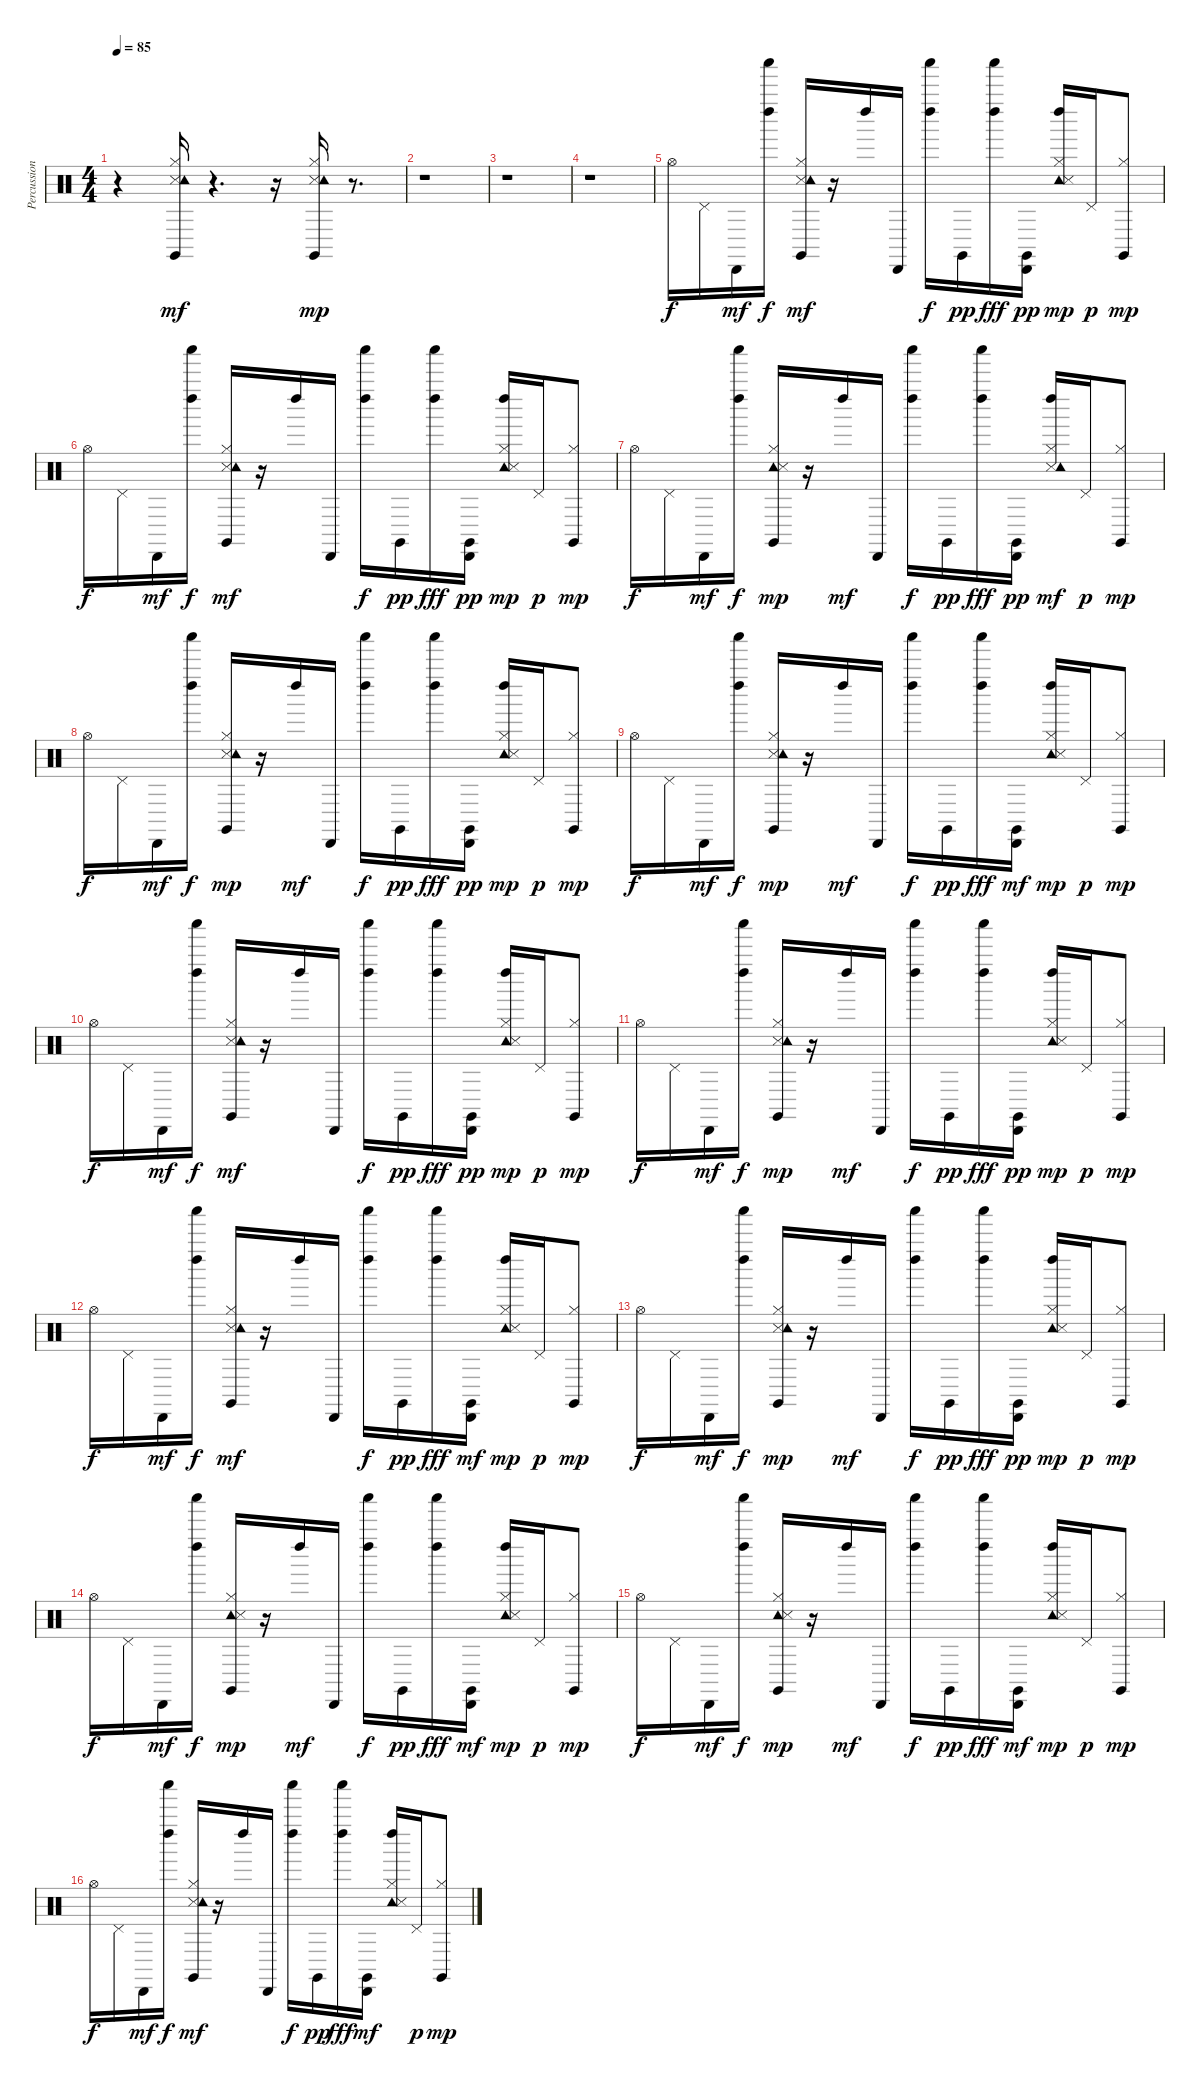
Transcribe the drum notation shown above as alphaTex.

\track ("Percussion" "Percussion") {instrument percussion}
\staff {score}
\articulation defaults
\ts (4 4)
\tempo 85
\clef neutral
\ks c
r.4{dy mp} ("Claves (hit)" "Snare (side stick) 3" "Hi-Hat (closed)" "Tambourine (hit)").16{dy mf} r.4{d} r.16 ("Hi-Hat (closed)" "Snare (side stick) 3" "Tambourine (hit)" "Claves (hit)").16{dy mp} r.8{d} |
r.1 |
r.1 |
r.1 |
"Hi-Hat (open)".16{dy f balance 10} "Pedal Hi-Hat (hit)".16 "Cabasa (hit)".16{dy mf} ("Left Maraca (hit)" "Shaker (hit)").16{dy f} ("Claves (hit)" "Snare (side stick) 3" "Hi-Hat (closed)" "Tambourine (hit)").16{dy mf} r.16 "Left Maraca (hit)".16 "Cabasa (hit)".16 ("Left Maraca (hit)" "Shaker (hit)").16{dy f} "Claves (hit)".16{dy pp} ("Shaker (hit)" "Left Maraca (hit)").16{dy fff} ("Cabasa (hit)" "Claves (hit)").16{dy pp} ("Tambourine (hit)" "Hi-Hat (closed)" "Snare (side stick) 3" "Left Maraca (hit)").16{dy mp} "Pedal Hi-Hat (hit)".16{dy p} ("Hi-Hat (closed)" "Claves (hit)").8{dy mp} |
"Hi-Hat (open)".16{dy f} "Pedal Hi-Hat (hit)".16 "Cabasa (hit)".16{dy mf} ("Left Maraca (hit)" "Shaker (hit)").16{dy f} ("Snare (side stick) 3" "Hi-Hat (closed)" "Claves (hit)" "Tambourine (hit)").16{dy mf} r.16 "Left Maraca (hit)".16 "Cabasa (hit)".16 ("Shaker (hit)" "Left Maraca (hit)").16{dy f} "Claves (hit)".16{dy pp} ("Left Maraca (hit)" "Shaker (hit)").16{dy fff} ("Cabasa (hit)" "Claves (hit)").16{dy pp} ("Tambourine (hit)" "Snare (side stick) 3" "Left Maraca (hit)" "Hi-Hat (closed)").16{dy mp} "Pedal Hi-Hat (hit)".16{dy p} ("Claves (hit)" "Hi-Hat (closed)").8{dy mp} |
"Hi-Hat (open)".16{dy f} "Pedal Hi-Hat (hit)".16 "Cabasa (hit)".16{dy mf} ("Shaker (hit)" "Left Maraca (hit)").16{dy f} ("Claves (hit)" "Tambourine (hit)" "Snare (side stick) 3" "Hi-Hat (closed)").16{dy mp} r.16 "Left Maraca (hit)".16{dy mf} "Cabasa (hit)".16 ("Shaker (hit)" "Left Maraca (hit)").16{dy f} "Claves (hit)".16{dy pp} ("Left Maraca (hit)" "Shaker (hit)").16{dy fff} ("Cabasa (hit)" "Claves (hit)").16{dy pp} ("Hi-Hat (closed)" "Snare (side stick) 3" "Left Maraca (hit)" "Tambourine (hit)").16{dy mf} "Pedal Hi-Hat (hit)".16{dy p} ("Claves (hit)" "Hi-Hat (closed)").8{dy mp} |
"Hi-Hat (open)".16{dy f} "Pedal Hi-Hat (hit)".16 "Cabasa (hit)".16{dy mf} ("Shaker (hit)" "Left Maraca (hit)").16{dy f} ("Snare (side stick) 3" "Tambourine (hit)" "Claves (hit)" "Hi-Hat (closed)").16{dy mp} r.16 "Left Maraca (hit)".16{dy mf} "Cabasa (hit)".16 ("Left Maraca (hit)" "Shaker (hit)").16{dy f} "Claves (hit)".16{dy pp} ("Left Maraca (hit)" "Shaker (hit)").16{dy fff} ("Cabasa (hit)" "Claves (hit)").16{dy pp} ("Tambourine (hit)" "Hi-Hat (closed)" "Left Maraca (hit)" "Snare (side stick) 3").16{dy mp} "Pedal Hi-Hat (hit)".16{dy p} ("Hi-Hat (closed)" "Claves (hit)").8{dy mp} |
"Hi-Hat (open)".16{dy f} "Pedal Hi-Hat (hit)".16 "Cabasa (hit)".16{dy mf} ("Shaker (hit)" "Left Maraca (hit)").16{dy f} ("Snare (side stick) 3" "Claves (hit)" "Tambourine (hit)" "Hi-Hat (closed)").16{dy mp} r.16 "Left Maraca (hit)".16{dy mf} "Cabasa (hit)".16 ("Left Maraca (hit)" "Shaker (hit)").16{dy f} "Claves (hit)".16{dy pp} ("Left Maraca (hit)" "Shaker (hit)").16{dy fff} ("Claves (hit)" "Cabasa (hit)").16{dy mf} ("Left Maraca (hit)" "Tambourine (hit)" "Hi-Hat (closed)" "Snare (side stick) 3").16{dy mp} "Pedal Hi-Hat (hit)".16{dy p} ("Claves (hit)" "Hi-Hat (closed)").8{dy mp} |
"Hi-Hat (open)".16{dy f} "Pedal Hi-Hat (hit)".16 "Cabasa (hit)".16{dy mf} ("Shaker (hit)" "Left Maraca (hit)").16{dy f} ("Claves (hit)" "Hi-Hat (closed)" "Snare (side stick) 3" "Tambourine (hit)").16{dy mf} r.16 "Left Maraca (hit)".16 "Cabasa (hit)".16 ("Shaker (hit)" "Left Maraca (hit)").16{dy f} "Claves (hit)".16{dy pp} ("Left Maraca (hit)" "Shaker (hit)").16{dy fff} ("Cabasa (hit)" "Claves (hit)").16{dy pp} ("Tambourine (hit)" "Left Maraca (hit)" "Snare (side stick) 3" "Hi-Hat (closed)").16{dy mp} "Pedal Hi-Hat (hit)".16{dy p} ("Hi-Hat (closed)" "Claves (hit)").8{dy mp} |
"Hi-Hat (open)".16{dy f} "Pedal Hi-Hat (hit)".16 "Cabasa (hit)".16{dy mf} ("Left Maraca (hit)" "Shaker (hit)").16{dy f} ("Claves (hit)" "Snare (side stick) 3" "Tambourine (hit)" "Hi-Hat (closed)").16{dy mp} r.16 "Left Maraca (hit)".16{dy mf} "Cabasa (hit)".16 ("Left Maraca (hit)" "Shaker (hit)").16{dy f} "Claves (hit)".16{dy pp} ("Left Maraca (hit)" "Shaker (hit)").16{dy fff} ("Cabasa (hit)" "Claves (hit)").16{dy pp} ("Hi-Hat (closed)" "Tambourine (hit)" "Snare (side stick) 3" "Left Maraca (hit)").16{dy mp} "Pedal Hi-Hat (hit)".16{dy p} ("Claves (hit)" "Hi-Hat (closed)").8{dy mp} |
"Hi-Hat (open)".16{dy f} "Pedal Hi-Hat (hit)".16 "Cabasa (hit)".16{dy mf} ("Shaker (hit)" "Left Maraca (hit)").16{dy f} ("Hi-Hat (closed)" "Claves (hit)" "Snare (side stick) 3" "Tambourine (hit)").16{dy mf} r.16 "Left Maraca (hit)".16 "Cabasa (hit)".16 ("Left Maraca (hit)" "Shaker (hit)").16{dy f} "Claves (hit)".16{dy pp} ("Left Maraca (hit)" "Shaker (hit)").16{dy fff} ("Claves (hit)" "Cabasa (hit)").16{dy mf} ("Tambourine (hit)" "Snare (side stick) 3" "Left Maraca (hit)" "Hi-Hat (closed)").16{dy mp} "Pedal Hi-Hat (hit)".16{dy p} ("Hi-Hat (closed)" "Claves (hit)").8{dy mp} |
"Hi-Hat (open)".16{dy f} "Pedal Hi-Hat (hit)".16 "Cabasa (hit)".16{dy mf} ("Left Maraca (hit)" "Shaker (hit)").16{dy f} ("Hi-Hat (closed)" "Snare (side stick) 3" "Tambourine (hit)" "Claves (hit)").16{dy mp} r.16 "Left Maraca (hit)".16{dy mf} "Cabasa (hit)".16 ("Left Maraca (hit)" "Shaker (hit)").16{dy f} "Claves (hit)".16{dy pp} ("Shaker (hit)" "Left Maraca (hit)").16{dy fff} ("Cabasa (hit)" "Claves (hit)").16{dy pp} ("Hi-Hat (closed)" "Tambourine (hit)" "Left Maraca (hit)" "Snare (side stick) 3").16{dy mp} "Pedal Hi-Hat (hit)".16{dy p} ("Claves (hit)" "Hi-Hat (closed)").8{dy mp} |
"Hi-Hat (open)".16{dy f} "Pedal Hi-Hat (hit)".16 "Cabasa (hit)".16{dy mf} ("Shaker (hit)" "Left Maraca (hit)").16{dy f} ("Hi-Hat (closed)" "Tambourine (hit)" "Snare (side stick) 3" "Claves (hit)").16{dy mp} r.16 "Left Maraca (hit)".16{dy mf} "Cabasa (hit)".16 ("Shaker (hit)" "Left Maraca (hit)").16{dy f} "Claves (hit)".16{dy pp} ("Left Maraca (hit)" "Shaker (hit)").16{dy fff} ("Claves (hit)" "Cabasa (hit)").16{dy mf} ("Tambourine (hit)" "Hi-Hat (closed)" "Snare (side stick) 3" "Left Maraca (hit)").16{dy mp} "Pedal Hi-Hat (hit)".16{dy p} ("Hi-Hat (closed)" "Claves (hit)").8{dy mp} |
"Hi-Hat (open)".16{dy f} "Pedal Hi-Hat (hit)".16 "Cabasa (hit)".16{dy mf} ("Left Maraca (hit)" "Shaker (hit)").16{dy f} ("Claves (hit)" "Tambourine (hit)" "Hi-Hat (closed)" "Snare (side stick) 3").16{dy mp} r.16 "Left Maraca (hit)".16{dy mf} "Cabasa (hit)".16 ("Left Maraca (hit)" "Shaker (hit)").16{dy f} "Claves (hit)".16{dy pp} ("Shaker (hit)" "Left Maraca (hit)").16{dy fff} ("Claves (hit)" "Cabasa (hit)").16{dy mf} ("Left Maraca (hit)" "Tambourine (hit)" "Hi-Hat (closed)" "Snare (side stick) 3").16{dy mp} "Pedal Hi-Hat (hit)".16{dy p} ("Claves (hit)" "Hi-Hat (closed)").8{dy mp} |
"Hi-Hat (open)".16{dy f} "Pedal Hi-Hat (hit)".16 "Cabasa (hit)".16{dy mf} ("Shaker (hit)" "Left Maraca (hit)").16{dy f} ("Hi-Hat (closed)" "Claves (hit)" "Snare (side stick) 3" "Tambourine (hit)").16{dy mf} r.16 "Left Maraca (hit)".16 "Cabasa (hit)".16 ("Left Maraca (hit)" "Shaker (hit)").16{dy f} "Claves (hit)".16{dy pp} ("Left Maraca (hit)" "Shaker (hit)").16{dy fff} ("Claves (hit)" "Cabasa (hit)").16{dy mf} ("Hi-Hat (closed)" "Left Maraca (hit)" "Tambourine (hit)" "Snare (side stick) 3").16 "Pedal Hi-Hat (hit)".16{dy p} ("Hi-Hat (closed)" "Claves (hit)").8{dy mp}
